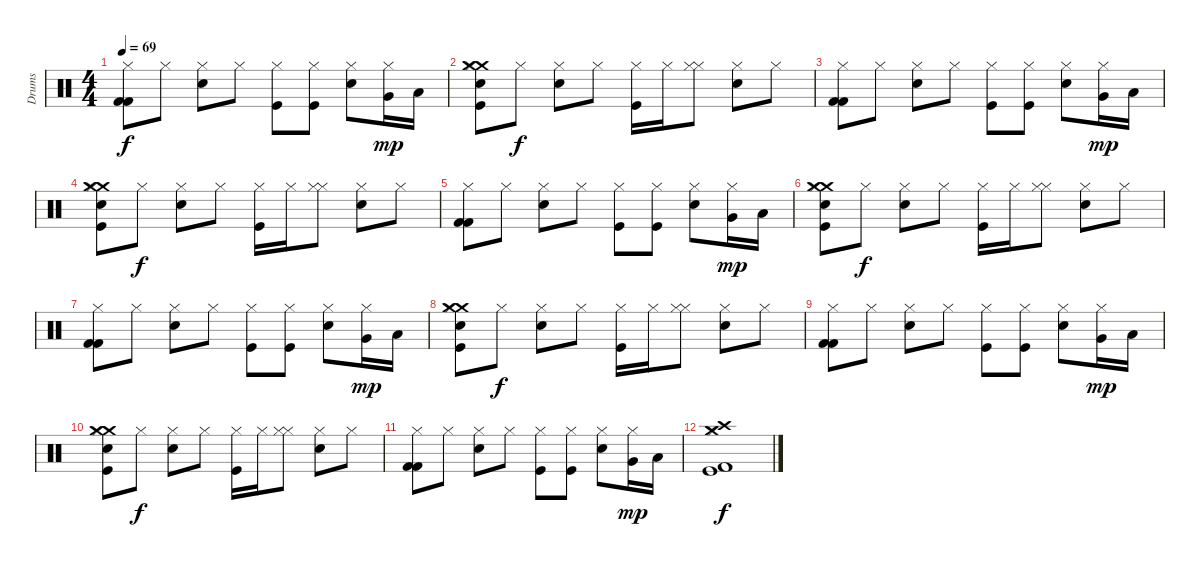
\track ("Drums" "Drums") {instrument percussion}
\staff {score}
\articulation defaults
\ts (4 4)
\tempo 69
\clef neutral
\ks c
("Hi-Hat (closed)" "Kick (hit) 2" "Kick (hit) 2").8{dy f} "Hi-Hat (closed)".8 ("Snare (hit) 2" "Hi-Hat (closed)").8 "Hi-Hat (closed)".8 ("Kick (hit)" "Hi-Hat (closed)").8 ("Kick (hit)" "Hi-Hat (closed)").8 ("Snare (hit) 2" "Hi-Hat (closed)").8 ("Very Low Tom (hit)" "Hi-Hat (closed)").16{dy mp} "Low Floor Tom (hit)".16 |
("Kick (hit)" "Crash medium (hit)" "Electric Snare (hit)" "Crash medium (hit)" "Hi-Hat (closed)").8 "Hi-Hat (closed)".8{dy f} ("Snare (hit) 2" "Hi-Hat (closed)").8 "Hi-Hat (closed)".8 ("Kick (hit)" "Hi-Hat (closed)").16 "Hi-Hat (closed)".16 ("Hi-Hat (closed)" "Hi-Hat (closed)").8 ("Snare (hit) 2" "Hi-Hat (closed)").8 "Hi-Hat (closed)".8 |
("Hi-Hat (closed)" "Kick (hit) 2" "Kick (hit) 2").8 "Hi-Hat (closed)".8 ("Snare (hit) 2" "Hi-Hat (closed)").8 "Hi-Hat (closed)".8 ("Kick (hit)" "Hi-Hat (closed)").8 ("Kick (hit)" "Hi-Hat (closed)").8 ("Snare (hit) 2" "Hi-Hat (closed)").8 ("Very Low Tom (hit)" "Hi-Hat (closed)").16{dy mp} "Low Floor Tom (hit)".16 |
("Kick (hit)" "Crash medium (hit)" "Electric Snare (hit)" "Crash medium (hit)" "Hi-Hat (closed)").8 "Hi-Hat (closed)".8{dy f} ("Snare (hit) 2" "Hi-Hat (closed)").8 "Hi-Hat (closed)".8 ("Kick (hit)" "Hi-Hat (closed)").16 "Hi-Hat (closed)".16 ("Hi-Hat (closed)" "Hi-Hat (closed)").8 ("Snare (hit) 2" "Hi-Hat (closed)").8 "Hi-Hat (closed)".8 |
("Hi-Hat (closed)" "Kick (hit) 2" "Kick (hit) 2").8 "Hi-Hat (closed)".8 ("Snare (hit) 2" "Hi-Hat (closed)").8 "Hi-Hat (closed)".8 ("Kick (hit)" "Hi-Hat (closed)").8 ("Kick (hit)" "Hi-Hat (closed)").8 ("Snare (hit) 2" "Hi-Hat (closed)").8 ("Very Low Tom (hit)" "Hi-Hat (closed)").16{dy mp} "Low Floor Tom (hit)".16 |
("Kick (hit)" "Crash medium (hit)" "Electric Snare (hit)" "Crash medium (hit)" "Hi-Hat (closed)").8 "Hi-Hat (closed)".8{dy f} ("Snare (hit) 2" "Hi-Hat (closed)").8 "Hi-Hat (closed)".8 ("Kick (hit)" "Hi-Hat (closed)").16 "Hi-Hat (closed)".16 ("Hi-Hat (closed)" "Hi-Hat (closed)").8 ("Snare (hit) 2" "Hi-Hat (closed)").8 "Hi-Hat (closed)".8 |
("Hi-Hat (closed)" "Kick (hit) 2" "Kick (hit) 2").8 "Hi-Hat (closed)".8 ("Snare (hit) 2" "Hi-Hat (closed)").8 "Hi-Hat (closed)".8 ("Kick (hit)" "Hi-Hat (closed)").8 ("Kick (hit)" "Hi-Hat (closed)").8 ("Snare (hit) 2" "Hi-Hat (closed)").8 ("Very Low Tom (hit)" "Hi-Hat (closed)").16{dy mp} "Low Floor Tom (hit)".16 |
("Kick (hit)" "Crash medium (hit)" "Electric Snare (hit)" "Crash medium (hit)" "Hi-Hat (closed)").8 "Hi-Hat (closed)".8{dy f} ("Snare (hit) 2" "Hi-Hat (closed)").8 "Hi-Hat (closed)".8 ("Kick (hit)" "Hi-Hat (closed)").16 "Hi-Hat (closed)".16 ("Hi-Hat (closed)" "Hi-Hat (closed)").8 ("Snare (hit) 2" "Hi-Hat (closed)").8 "Hi-Hat (closed)".8 |
("Hi-Hat (closed)" "Kick (hit) 2" "Kick (hit) 2").8 "Hi-Hat (closed)".8 ("Snare (hit) 2" "Hi-Hat (closed)").8 "Hi-Hat (closed)".8 ("Kick (hit)" "Hi-Hat (closed)").8 ("Kick (hit)" "Hi-Hat (closed)").8 ("Snare (hit) 2" "Hi-Hat (closed)").8 ("Very Low Tom (hit)" "Hi-Hat (closed)").16{dy mp} "Low Floor Tom (hit)".16 |
("Kick (hit)" "Crash medium (hit)" "Electric Snare (hit)" "Crash medium (hit)" "Hi-Hat (closed)").8 "Hi-Hat (closed)".8{dy f} ("Snare (hit) 2" "Hi-Hat (closed)").8 "Hi-Hat (closed)".8 ("Kick (hit)" "Hi-Hat (closed)").16 "Hi-Hat (closed)".16 ("Hi-Hat (closed)" "Hi-Hat (closed)").8 ("Snare (hit) 2" "Hi-Hat (closed)").8 "Hi-Hat (closed)".8 |
("Hi-Hat (closed)" "Kick (hit) 2" "Kick (hit) 2").8 "Hi-Hat (closed)".8 ("Snare (hit) 2" "Hi-Hat (closed)").8 "Hi-Hat (closed)".8 ("Kick (hit)" "Hi-Hat (closed)").8 ("Kick (hit)" "Hi-Hat (closed)").8 ("Snare (hit) 2" "Hi-Hat (closed)").8 ("Very Low Tom (hit)" "Hi-Hat (closed)").16{dy mp} "Low Floor Tom (hit)".16 |
("Crash high (hit)" "Crash medium (hit)" "Kick (hit)" "Hi-Hat (closed)" "Kick (hit) 2").1{dy f}
